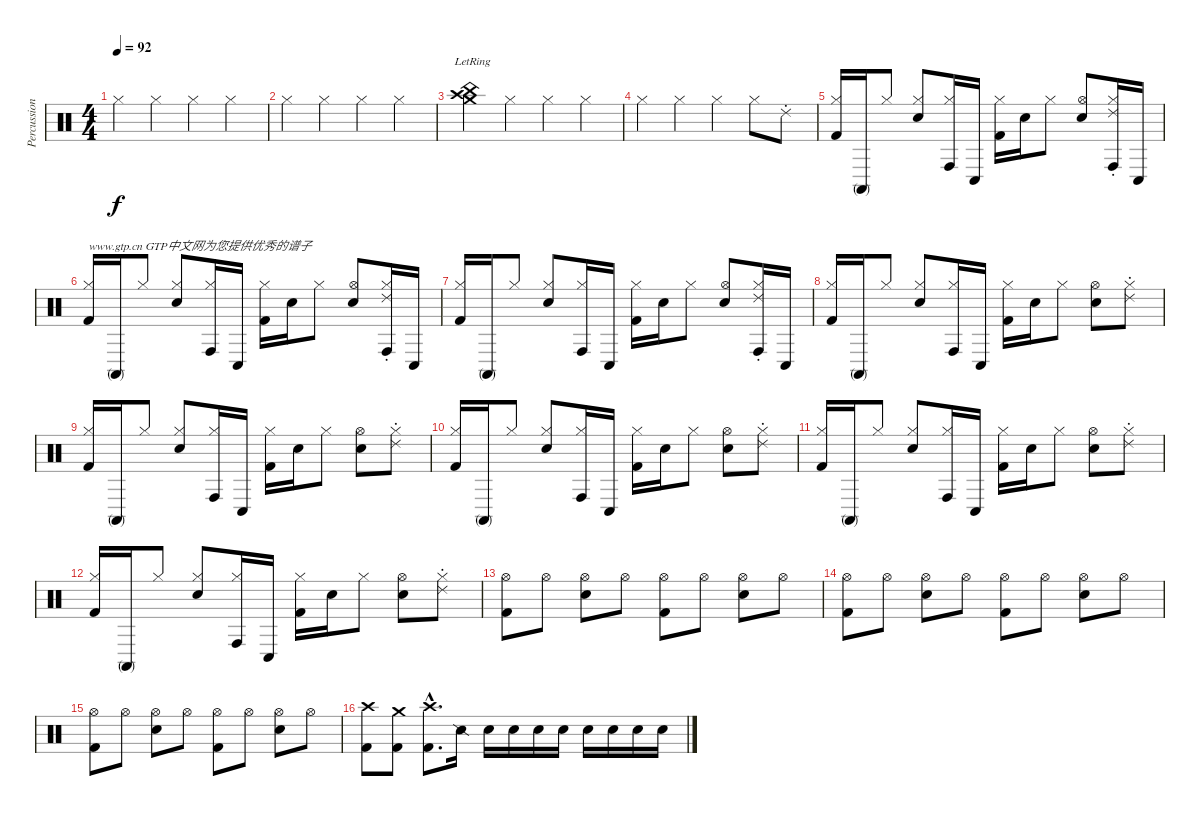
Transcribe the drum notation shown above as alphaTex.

\track ("Percussion" "Percussion") {instrument percussion}
\staff {score}
\articulation defaults
\ts (4 4)
\tempo 92
\clef neutral
\ks c "Hi-Hat (closed)".4{dy f} "Hi-Hat (closed)".4 "Hi-Hat (closed)".4 "Hi-Hat (closed)".4
|
"Hi-Hat (closed)".4 "Hi-Hat (closed)".4 "Hi-Hat (closed)".4 "Hi-Hat (closed)".4 |
("China (hit)"{lr} "Crash high (hit)"{lr} "Crash medium (hit)"{lr}).4 "Hi-Hat (closed)".4 "Hi-Hat (closed)".4 "Hi-Hat (closed)".4 |
"Hi-Hat (closed)".4 "Hi-Hat (closed)".4 "Hi-Hat (closed)".4 "Hi-Hat (closed)".8 "Ride (choke) 2".8 |
("Hi-Hat (closed)" "Kick (hit) 2").16 "Conga high (mute)".16 "Hi-Hat (closed)".8 ("Hi-Hat (closed)" "Metronome (bell)").8 ("Hi-Hat (closed)" "Conga high (hit)").16 "Conga low (hit)".16 ("Hi-Hat (closed)" "Kick (hit) 2").16 "Metronome (bell)".16 "Hi-Hat (closed)".8 ("Hi-Hat (open)" "Metronome (bell)").8 ("Hi-Hat (closed)" "Conga high (hit)" "Ride (choke) 2").16 "Conga low (hit)".16 |
("Hi-Hat (closed)" "Kick (hit) 2").16{txt "www.gtp.cn GTP中文网为您提供优秀的谱子"} "Conga high (mute)".16 "Hi-Hat (closed)".8 ("Hi-Hat (closed)" "Metronome (bell)").8 ("Hi-Hat (closed)" "Conga high (hit)").16 "Conga low (hit)".16 ("Hi-Hat (closed)" "Kick (hit) 2").16 "Metronome (bell)".16 "Hi-Hat (closed)".8 ("Hi-Hat (open)" "Metronome (bell)").8 ("Hi-Hat (closed)" "Conga high (hit)" "Ride (choke) 2").16 "Conga low (hit)".16 |
("Hi-Hat (closed)" "Kick (hit) 2").16 "Conga high (mute)".16 "Hi-Hat (closed)".8 ("Hi-Hat (closed)" "Metronome (bell)").8 ("Hi-Hat (closed)" "Conga high (hit)").16 "Conga low (hit)".16 ("Hi-Hat (closed)" "Kick (hit) 2").16 "Metronome (bell)".16 "Hi-Hat (closed)".8 ("Hi-Hat (open)" "Metronome (bell)").8 ("Hi-Hat (closed)" "Conga high (hit)" "Ride (choke) 2").16 "Conga low (hit)".16 |
("Hi-Hat (closed)" "Kick (hit) 2").16 "Conga high (mute)".16 "Hi-Hat (closed)".8 ("Hi-Hat (closed)" "Metronome (bell)").8 ("Hi-Hat (closed)" "Conga high (hit)").16 "Conga low (hit)".16 ("Hi-Hat (closed)" "Kick (hit) 2").16 "Metronome (bell)".16 "Hi-Hat (closed)".8 ("Hi-Hat (open)" "Metronome (bell)").8 ("Hi-Hat (closed)" "Ride (choke) 2").8 |
("Hi-Hat (closed)" "Kick (hit) 2").16 "Conga high (mute)".16 "Hi-Hat (closed)".8 ("Hi-Hat (closed)" "Metronome (bell)").8 ("Hi-Hat (closed)" "Conga high (hit)").16 "Conga low (hit)".16 ("Hi-Hat (closed)" "Kick (hit) 2").16 "Metronome (bell)".16 "Hi-Hat (closed)".8 ("Hi-Hat (open)" "Metronome (bell)").8 ("Hi-Hat (closed)" "Ride (choke) 2").8 |
("Hi-Hat (closed)" "Kick (hit) 2").16 "Conga high (mute)".16 "Hi-Hat (closed)".8 ("Hi-Hat (closed)" "Metronome (bell)").8 ("Hi-Hat (closed)" "Conga high (hit)").16 "Conga low (hit)".16 ("Hi-Hat (closed)" "Kick (hit) 2").16 "Metronome (bell)".16 "Hi-Hat (closed)".8 ("Hi-Hat (open)" "Metronome (bell)").8 ("Hi-Hat (closed)" "Ride (choke) 2").8 |
("Hi-Hat (closed)" "Kick (hit) 2").16 "Conga high (mute)".16 "Hi-Hat (closed)".8 ("Hi-Hat (closed)" "Metronome (bell)").8 ("Hi-Hat (closed)" "Conga high (hit)").16 "Conga low (hit)".16 ("Hi-Hat (closed)" "Kick (hit) 2").16 "Metronome (bell)".16 "Hi-Hat (closed)".8 ("Hi-Hat (open)" "Metronome (bell)").8 ("Hi-Hat (closed)" "Ride (choke) 2").8 |
("Hi-Hat (closed)" "Kick (hit) 2").16 "Conga high (mute)".16 "Hi-Hat (closed)".8 ("Hi-Hat (closed)" "Metronome (bell)").8 ("Hi-Hat (closed)" "Conga high (hit)").16 "Conga low (hit)".16 ("Hi-Hat (closed)" "Kick (hit) 2").16 "Metronome (bell)".16 "Hi-Hat (closed)".8 ("Hi-Hat (open)" "Metronome (bell)").8 ("Hi-Hat (closed)" "Ride (choke) 2").8 |
("Hi-Hat (open)" "Kick (hit) 2").8 "Hi-Hat (open)".8 ("Hi-Hat (open)" "Metronome (bell)").8 "Hi-Hat (open)".8 ("Hi-Hat (open)" "Kick (hit) 2").8 "Hi-Hat (open)".8 ("Hi-Hat (open)" "Metronome (bell)").8 "Hi-Hat (open)".8 |
("Hi-Hat (open)" "Kick (hit) 2").8 "Hi-Hat (open)".8 ("Hi-Hat (open)" "Metronome (bell)").8 "Hi-Hat (open)".8 ("Hi-Hat (open)" "Kick (hit) 2").8 "Hi-Hat (open)".8 ("Hi-Hat (open)" "Metronome (bell)").8 "Hi-Hat (open)".8 |
("Hi-Hat (open)" "Kick (hit) 2").8 "Hi-Hat (open)".8 ("Hi-Hat (open)" "Metronome (bell)").8 "Hi-Hat (open)".8 ("Hi-Hat (open)" "Kick (hit) 2").8 "Hi-Hat (open)".8 ("Hi-Hat (open)" "Metronome (bell)").8 "Hi-Hat (open)".8 |
("Crash high (hit)" "Kick (hit) 2").8 ("Crash medium (hit)" "Kick (hit) 2").8 ("Crash high (hit)"{hac} "Kick (hit) 2"{hac}).8{d} "Snare (side stick) 2".16 "Metronome (bell)".16 "Metronome (bell)".16 "Metronome (bell)".16 "Metronome (bell)".16 "Metronome (bell)".16 "Metronome (bell)".16 "Metronome (bell)".16 "Metronome (bell)".16
